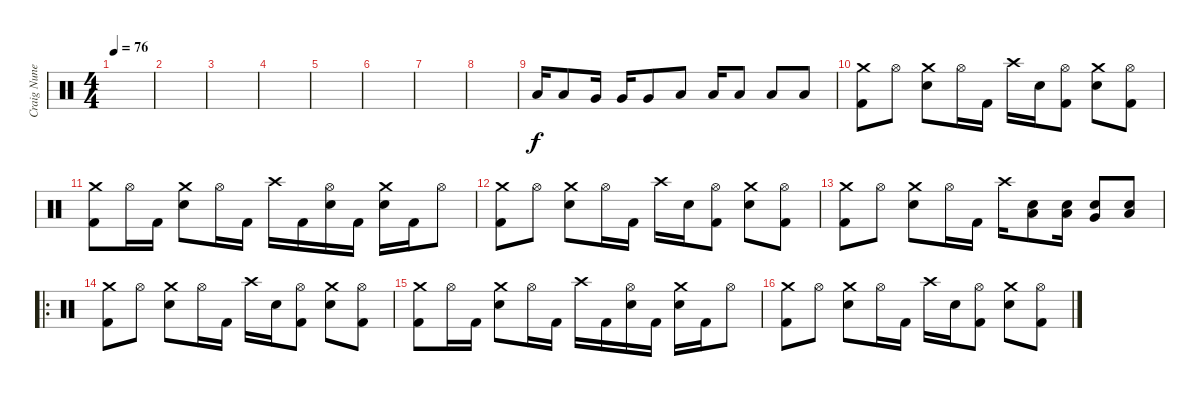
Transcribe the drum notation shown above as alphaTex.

\track ("Craig Nunenmacher" "Craig Nune") {instrument percussion}
\staff {score}
\articulation defaults
\ts (4 4)
\tempo 76
\clef neutral
\ks c
|
|
|
|
|
|
|
|
"Low Tom (hit)".16 "Low Tom (hit)".8 "Very Low Tom (hit)".16 "Very Low Tom (hit)".16 "Very Low Tom (hit)".8 "Low Floor Tom (hit)".8 "Low Floor Tom (hit)".16 "Low Floor Tom (hit)".8 "Low Floor Tom (hit)".8 "Low Floor Tom (hit)".8 |
("Crash medium (hit)" "Kick (hit) 2").8 "Hi-Hat (open)".8 ("Crash medium (hit)" "Snare (hit) 2").8 "Hi-Hat (open)".16 "Kick (hit) 2".16 "Crash high (hit)".16 "Snare (hit) 2".16 ("Hi-Hat (open)" "Kick (hit) 2").8 ("Crash medium (hit)" "Snare (hit) 2").8 ("Hi-Hat (open)" "Kick (hit) 2").8 |
("Crash medium (hit)" "Kick (hit) 2").8 "Hi-Hat (open)".16 "Kick (hit) 2".16 ("Crash medium (hit)" "Snare (hit) 2").8 "Hi-Hat (open)".16 "Kick (hit) 2".16 "Crash high (hit)".16 "Kick (hit) 2".16 ("Hi-Hat (open)" "Snare (hit) 2").16 "Kick (hit) 2".16 ("Crash medium (hit)" "Snare (hit) 2").16 "Kick (hit) 2".16 "Hi-Hat (open)".8 |
("Crash medium (hit)" "Kick (hit) 2").8 "Hi-Hat (open)".8 ("Crash medium (hit)" "Snare (hit) 2").8 "Hi-Hat (open)".16 "Kick (hit) 2".16 "Crash high (hit)".16 "Snare (hit) 2".16 ("Hi-Hat (open)" "Kick (hit) 2").8 ("Crash medium (hit)" "Snare (hit) 2").8 ("Hi-Hat (open)" "Kick (hit) 2").8 |
("Crash medium (hit)" "Kick (hit) 2").8 "Hi-Hat (open)".8 ("Crash medium (hit)" "Snare (hit) 2").8 "Hi-Hat (open)".16 "Kick (hit) 2".16 "Crash high (hit)".16 ("Snare (hit) 2" "Low Tom (hit)").8 ("Snare (hit) 2" "Low Tom (hit)").16 ("Snare (hit) 2" "Very Low Tom (hit)").8 ("Snare (hit) 2" "Low Floor Tom (hit)").8 |
\ro
("Crash medium (hit)" "Kick (hit) 2").8 "Hi-Hat (open)".8 ("Crash medium (hit)" "Snare (hit) 2").8 "Hi-Hat (open)".16 "Kick (hit) 2".16 "Crash high (hit)".16 "Snare (hit) 2".16 ("Hi-Hat (open)" "Kick (hit) 2").8 ("Crash medium (hit)" "Snare (hit) 2").8 ("Hi-Hat (open)" "Kick (hit) 2").8 |
("Crash medium (hit)" "Kick (hit) 2").8 "Hi-Hat (open)".16 "Kick (hit) 2".16 ("Crash medium (hit)" "Snare (hit) 2").8 "Hi-Hat (open)".16 "Kick (hit) 2".16 "Crash high (hit)".16 "Kick (hit) 2".16 ("Hi-Hat (open)" "Snare (hit) 2").16 "Kick (hit) 2".16 ("Crash medium (hit)" "Snare (hit) 2").16 "Kick (hit) 2".16 "Hi-Hat (open)".8 |
("Crash medium (hit)" "Kick (hit) 2").8 "Hi-Hat (open)".8 ("Crash medium (hit)" "Snare (hit) 2").8 "Hi-Hat (open)".16 "Kick (hit) 2".16 "Crash high (hit)".16 "Snare (hit) 2".16 ("Hi-Hat (open)" "Kick (hit) 2").8 ("Crash medium (hit)" "Snare (hit) 2").8 ("Hi-Hat (open)" "Kick (hit) 2").8
